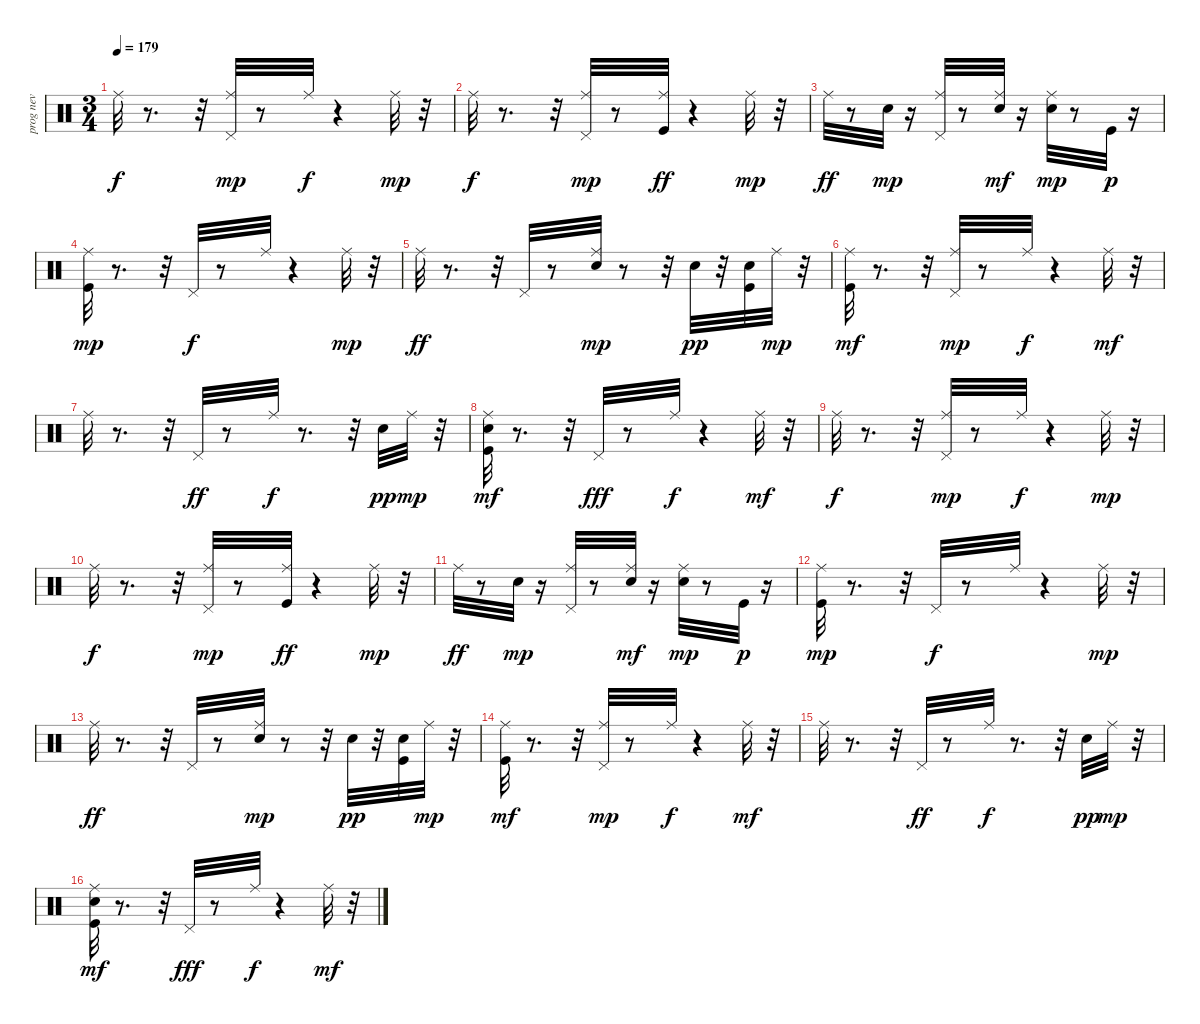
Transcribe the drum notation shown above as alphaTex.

\track ("prog nev" "prog nev") {instrument percussion}
\staff {score}
\articulation defaults
\ts (3 4)
\tempo 179
\clef neutral
\ks c "Ride (middle)".32{dy f}
r.8{d} r.32 ("Pedal Hi-Hat (hit)" "Ride (middle)").32{dy mp} r.8 "Ride (middle)".32{dy f} r.4 "Ride (middle)".32{dy mp} r.32 |
"Ride (middle)".32{dy f} r.8{d} r.32 ("Pedal Hi-Hat (hit)" "Ride (middle)").32{dy mp} r.8 ("Kick (hit)" "Ride (middle)").32{dy ff} r.4 "Ride (middle)".32{dy mp} r.32 |
"Ride (middle)".32{dy ff} r.8 "Snare (hit) 2".32{dy mp} r.16 ("Pedal Hi-Hat (hit)" "Ride (middle)").32 r.8 ("Snare (hit) 2" "Ride (middle)").32{dy mf} r.16 ("Hand Clap (hit)" "Ride (middle)").32{dy mp} r.8 "Kick (hit)".32{dy p} r.16 |
("Kick (hit)" "Ride (middle)").32{dy mp} r.8{d} r.32 "Pedal Hi-Hat (hit)".32{dy f} r.8 "Ride (middle)".32 r.4 "Ride (middle)".32{dy mp} r.32 |
"Ride (middle)".32{dy ff} r.8{d} r.32 "Pedal Hi-Hat (hit)".32 r.8 ("Hand Clap (hit)" "Ride (middle)").32{dy mp} r.8 r.32 "Snare (hit) 2".32{dy pp} r.32 ("Kick (hit)" "Snare (hit) 2").32 "Ride (middle)".32{dy mp} r.32 |
("Kick (hit)" "Ride (middle)").32{dy mf} r.8{d} r.32 ("Pedal Hi-Hat (hit)" "Ride (middle)").32{dy mp} r.8 "Ride (middle)".32{dy f} r.4 "Ride (middle)".32{dy mf} r.32 |
"Ride (middle)".32 r.8{d} r.32 "Pedal Hi-Hat (hit)".32{dy ff} r.8 "Ride (middle)".32{dy f} r.8{d} r.32 "Snare (hit) 2".32{dy pp} "Ride (middle)".32{dy mp} r.32 |
("Kick (hit)" "Snare (hit) 2" "Ride (middle)").32{dy mf} r.8{d} r.32 "Pedal Hi-Hat (hit)".32{dy fff} r.8 "Ride (middle)".32{dy f} r.4 "Ride (middle)".32{dy mf} r.32 |
"Ride (middle)".32{dy f} r.8{d} r.32 ("Pedal Hi-Hat (hit)" "Ride (middle)").32{dy mp} r.8 "Ride (middle)".32{dy f} r.4 "Ride (middle)".32{dy mp} r.32 |
"Ride (middle)".32{dy f} r.8{d} r.32 ("Pedal Hi-Hat (hit)" "Ride (middle)").32{dy mp} r.8 ("Kick (hit)" "Ride (middle)").32{dy ff} r.4 "Ride (middle)".32{dy mp} r.32 |
"Ride (middle)".32{dy ff} r.8 "Snare (hit) 2".32{dy mp} r.16 ("Pedal Hi-Hat (hit)" "Ride (middle)").32 r.8 ("Snare (hit) 2" "Ride (middle)").32{dy mf} r.16 ("Hand Clap (hit)" "Ride (middle)").32{dy mp} r.8 "Kick (hit)".32{dy p} r.16 |
("Kick (hit)" "Ride (middle)").32{dy mp} r.8{d} r.32 "Pedal Hi-Hat (hit)".32{dy f} r.8 "Ride (middle)".32 r.4 "Ride (middle)".32{dy mp} r.32 |
"Ride (middle)".32{dy ff} r.8{d} r.32 "Pedal Hi-Hat (hit)".32 r.8 ("Hand Clap (hit)" "Ride (middle)").32{dy mp} r.8 r.32 "Snare (hit) 2".32{dy pp} r.32 ("Kick (hit)" "Snare (hit) 2").32 "Ride (middle)".32{dy mp} r.32 |
("Kick (hit)" "Ride (middle)").32{dy mf} r.8{d} r.32 ("Pedal Hi-Hat (hit)" "Ride (middle)").32{dy mp} r.8 "Ride (middle)".32{dy f} r.4 "Ride (middle)".32{dy mf} r.32 |
"Ride (middle)".32 r.8{d} r.32 "Pedal Hi-Hat (hit)".32{dy ff} r.8 "Ride (middle)".32{dy f} r.8{d} r.32 "Snare (hit) 2".32{dy pp} "Ride (middle)".32{dy mp} r.32 |
("Kick (hit)" "Snare (hit) 2" "Ride (middle)").32{dy mf} r.8{d} r.32 "Pedal Hi-Hat (hit)".32{dy fff} r.8 "Ride (middle)".32{dy f} r.4 "Ride (middle)".32{dy mf} r.32
